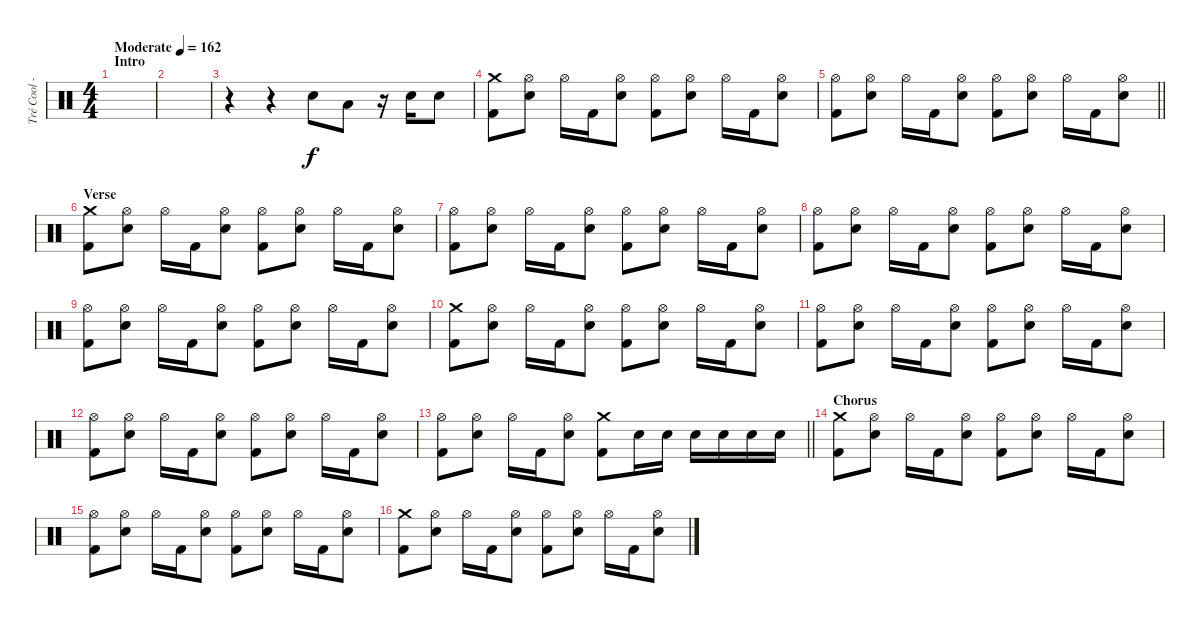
\track ("Tré Cool - Drums" "Tré Cool -") {instrument percussion}
\staff {score}
\articulation defaults
\ts (4 4)
\section ("" "Intro")
\tempo (162 "Moderate")
\clef neutral
\ks c
|
|
r.4 r.4 "Electric Snare (hit)".8 "Low Tom (hit)".8 r.16 "Electric Snare (hit)".16 "Electric Snare (hit)".8 |
("Crash medium (hit)" "Kick (hit) 2").8 ("Hi-Hat (open)" "Electric Snare (hit)").8 "Hi-Hat (open)".16 "Kick (hit) 2".16 ("Hi-Hat (open)" "Electric Snare (hit)").8 ("Hi-Hat (open)" "Kick (hit) 2").8 ("Hi-Hat (open)" "Electric Snare (hit)").8 "Hi-Hat (open)".16 "Kick (hit) 2".16 ("Hi-Hat (open)" "Electric Snare (hit)").8 |
\barLineRight lightlight
("Hi-Hat (open)" "Kick (hit) 2").8 ("Hi-Hat (open)" "Electric Snare (hit)").8 "Hi-Hat (open)".16 "Kick (hit) 2".16 ("Hi-Hat (open)" "Electric Snare (hit)").8 ("Hi-Hat (open)" "Kick (hit) 2").8 ("Hi-Hat (open)" "Electric Snare (hit)").8 "Hi-Hat (open)".16 "Kick (hit) 2".16 ("Hi-Hat (open)" "Electric Snare (hit)").8 |
\section ("" "Verse")
("Crash medium (hit)" "Kick (hit) 2").8 ("Hi-Hat (open)" "Electric Snare (hit)").8 "Hi-Hat (open)".16 "Kick (hit) 2".16 ("Hi-Hat (open)" "Electric Snare (hit)").8 ("Hi-Hat (open)" "Kick (hit) 2").8 ("Hi-Hat (open)" "Electric Snare (hit)").8 "Hi-Hat (open)".16 "Kick (hit) 2".16 ("Hi-Hat (open)" "Electric Snare (hit)").8 |
("Hi-Hat (open)" "Kick (hit) 2").8 ("Hi-Hat (open)" "Electric Snare (hit)").8 "Hi-Hat (open)".16 "Kick (hit) 2".16 ("Hi-Hat (open)" "Electric Snare (hit)").8 ("Hi-Hat (open)" "Kick (hit) 2").8 ("Hi-Hat (open)" "Electric Snare (hit)").8 "Hi-Hat (open)".16 "Kick (hit) 2".16 ("Hi-Hat (open)" "Electric Snare (hit)").8 |
("Hi-Hat (open)" "Kick (hit) 2").8 ("Hi-Hat (open)" "Electric Snare (hit)").8 "Hi-Hat (open)".16 "Kick (hit) 2".16 ("Hi-Hat (open)" "Electric Snare (hit)").8 ("Hi-Hat (open)" "Kick (hit) 2").8 ("Hi-Hat (open)" "Electric Snare (hit)").8 "Hi-Hat (open)".16 "Kick (hit) 2".16 ("Hi-Hat (open)" "Electric Snare (hit)").8 |
("Hi-Hat (open)" "Kick (hit) 2").8 ("Hi-Hat (open)" "Electric Snare (hit)").8 "Hi-Hat (open)".16 "Kick (hit) 2".16 ("Hi-Hat (open)" "Electric Snare (hit)").8 ("Hi-Hat (open)" "Kick (hit) 2").8 ("Hi-Hat (open)" "Electric Snare (hit)").8 "Hi-Hat (open)".16 "Kick (hit) 2".16 ("Hi-Hat (open)" "Electric Snare (hit)").8 |
("Crash medium (hit)" "Kick (hit) 2").8 ("Hi-Hat (open)" "Electric Snare (hit)").8 "Hi-Hat (open)".16 "Kick (hit) 2".16 ("Hi-Hat (open)" "Electric Snare (hit)").8 ("Hi-Hat (open)" "Kick (hit) 2").8 ("Hi-Hat (open)" "Electric Snare (hit)").8 "Hi-Hat (open)".16 "Kick (hit) 2".16 ("Hi-Hat (open)" "Electric Snare (hit)").8 |
("Hi-Hat (open)" "Kick (hit) 2").8 ("Hi-Hat (open)" "Electric Snare (hit)").8 "Hi-Hat (open)".16 "Kick (hit) 2".16 ("Hi-Hat (open)" "Electric Snare (hit)").8 ("Hi-Hat (open)" "Kick (hit) 2").8 ("Hi-Hat (open)" "Electric Snare (hit)").8 "Hi-Hat (open)".16 "Kick (hit) 2".16 ("Hi-Hat (open)" "Electric Snare (hit)").8 |
("Hi-Hat (open)" "Kick (hit) 2").8 ("Hi-Hat (open)" "Electric Snare (hit)").8 "Hi-Hat (open)".16 "Kick (hit) 2".16 ("Hi-Hat (open)" "Electric Snare (hit)").8 ("Hi-Hat (open)" "Kick (hit) 2").8 ("Hi-Hat (open)" "Electric Snare (hit)").8 "Hi-Hat (open)".16 "Kick (hit) 2".16 ("Hi-Hat (open)" "Electric Snare (hit)").8 |
\barLineRight lightlight
("Hi-Hat (open)" "Kick (hit) 2").8 ("Hi-Hat (open)" "Electric Snare (hit)").8 "Hi-Hat (open)".16 "Kick (hit) 2".16 ("Hi-Hat (open)" "Electric Snare (hit)").8 ("Crash medium (hit)" "Kick (hit) 2").8 "Electric Snare (hit)".16 "Electric Snare (hit)".16 "Electric Snare (hit)".16 "Electric Snare (hit)".16 "Electric Snare (hit)".16 "Electric Snare (hit)".16 |
\section ("" "Chorus")
("Crash medium (hit)" "Kick (hit) 2").8 ("Hi-Hat (open)" "Electric Snare (hit)").8 "Hi-Hat (open)".16 "Kick (hit) 2".16 ("Hi-Hat (open)" "Electric Snare (hit)").8 ("Hi-Hat (open)" "Kick (hit) 2").8 ("Hi-Hat (open)" "Electric Snare (hit)").8 "Hi-Hat (open)".16 "Kick (hit) 2".16 ("Hi-Hat (open)" "Electric Snare (hit)").8 |
("Hi-Hat (open)" "Kick (hit) 2").8 ("Hi-Hat (open)" "Electric Snare (hit)").8 "Hi-Hat (open)".16 "Kick (hit) 2".16 ("Hi-Hat (open)" "Electric Snare (hit)").8 ("Hi-Hat (open)" "Kick (hit) 2").8 ("Hi-Hat (open)" "Electric Snare (hit)").8 "Hi-Hat (open)".16 "Kick (hit) 2".16 ("Hi-Hat (open)" "Electric Snare (hit)").8 |
("Crash medium (hit)" "Kick (hit) 2").8 ("Hi-Hat (open)" "Electric Snare (hit)").8 "Hi-Hat (open)".16 "Kick (hit) 2".16 ("Hi-Hat (open)" "Electric Snare (hit)").8 ("Hi-Hat (open)" "Kick (hit) 2").8 ("Hi-Hat (open)" "Electric Snare (hit)").8 "Hi-Hat (open)".16 "Kick (hit) 2".16 ("Hi-Hat (open)" "Electric Snare (hit)").8
